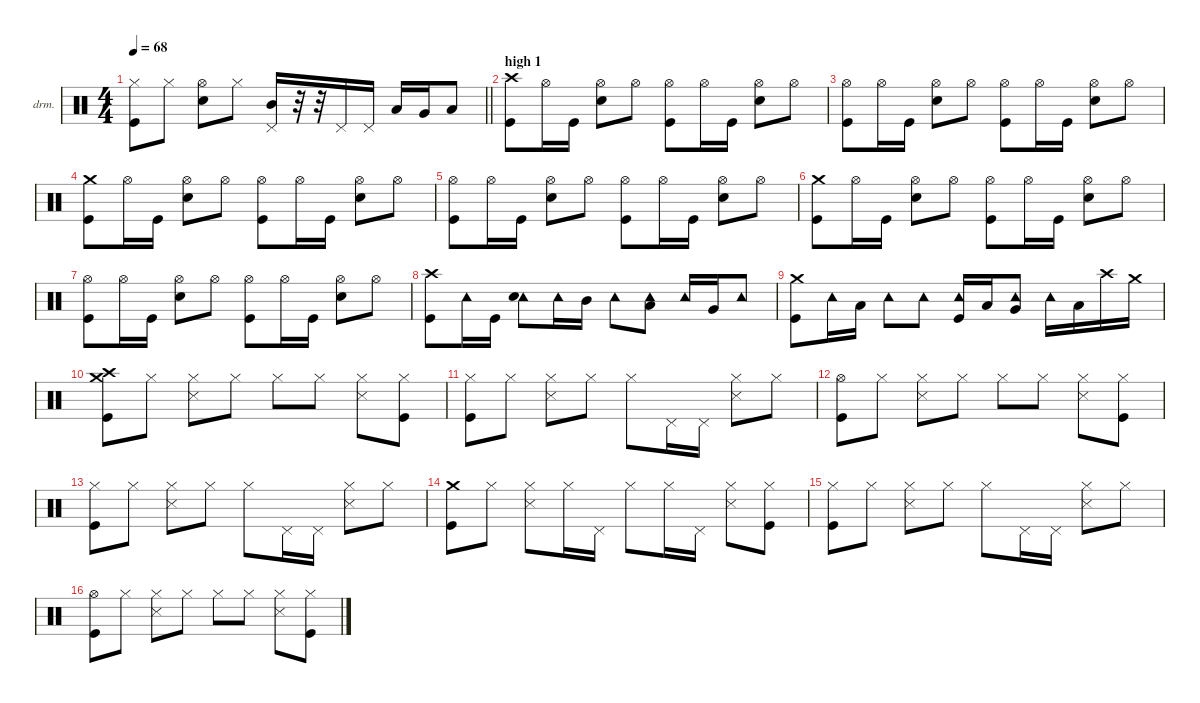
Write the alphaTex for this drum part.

\defaultSystemsLayout 4
\hideDynamics
\bracketExtendMode nobrackets
\firstSystemTrackNameOrientation horizontal
\otherSystemsTrackNameOrientation horizontal
\track ("Drums" "drm.") {instrument percussion}
\staff {score}
\articulation defaults
\ts (4 4)
\tempo 68
\clef neutral
\barLineRight lightlight
\ks c
("Kick (hit)" "Hi-Hat (closed)").8{dy f} "Hi-Hat (closed)".8 ("Snare (hit) 2" "Hi-Hat (open)").8 "Hi-Hat (closed)".8 ("Mid Tom (hit)" "Pedal Hi-Hat (hit)").16 r.32 r.32 "Pedal Hi-Hat (hit)".16 "Pedal Hi-Hat (hit)".16 "Low Tom (hit)".16 "Very Low Tom (hit)".16 "Low Floor Tom (hit)".8 |
\section ("" "high 1")
("Kick (hit)" "Crash high (hit)").8 "Hi-Hat (open)".16 "Kick (hit)".16 ("Hi-Hat (open)" "Snare (hit) 2").8 "Hi-Hat (open)".8 ("Hi-Hat (open)" "Kick (hit)").8 "Hi-Hat (open)".16 "Kick (hit)".16 ("Hi-Hat (open)" "Snare (hit) 2").8 "Hi-Hat (open)".8 |
("Hi-Hat (open)" "Kick (hit)").8 "Hi-Hat (open)".16 "Kick (hit)".16 ("Hi-Hat (open)" "Snare (hit) 2").8 "Hi-Hat (open)".8 ("Hi-Hat (open)" "Kick (hit)").8 "Hi-Hat (open)".16 "Kick (hit)".16 ("Hi-Hat (open)" "Snare (hit) 2").8 "Hi-Hat (open)".8 |
("Kick (hit)" "Crash medium (hit)").8 "Hi-Hat (open)".16 "Kick (hit)".16 ("Hi-Hat (open)" "Snare (hit) 2").8 "Hi-Hat (open)".8 ("Hi-Hat (open)" "Kick (hit)").8 "Hi-Hat (open)".16 "Kick (hit)".16 ("Hi-Hat (open)" "Snare (hit) 2").8 "Hi-Hat (open)".8 |
("Hi-Hat (open)" "Kick (hit)").8 "Hi-Hat (open)".16 "Kick (hit)".16 ("Hi-Hat (open)" "Snare (hit) 2").8 "Hi-Hat (open)".8 ("Hi-Hat (open)" "Kick (hit)").8 "Hi-Hat (open)".16 "Kick (hit)".16 ("Hi-Hat (open)" "Snare (hit) 2").8 "Hi-Hat (open)".8 |
("Kick (hit)" "Crash medium (hit)").8 "Hi-Hat (open)".16 "Kick (hit)".16 ("Hi-Hat (open)" "Snare (hit) 2").8 "Hi-Hat (open)".8 ("Hi-Hat (open)" "Kick (hit)").8 "Hi-Hat (open)".16 "Kick (hit)".16 ("Hi-Hat (open)" "Snare (hit) 2").8 "Hi-Hat (open)".8 |
("Hi-Hat (open)" "Kick (hit)").8 "Hi-Hat (open)".16 "Kick (hit)".16 ("Hi-Hat (open)" "Snare (hit) 2").8 "Hi-Hat (open)".8 ("Hi-Hat (open)" "Kick (hit)").8 "Hi-Hat (open)".16 "Kick (hit)".16 ("Hi-Hat (open)" "Snare (hit) 2").8 "Hi-Hat (open)".8 |
("Crash high (hit)" "Kick (hit)").8 "Tambourine (hit)".16 "Kick (hit)".16 ("Tambourine (hit)" "Snare (hit) 2").8 "Tambourine (hit)".16 "Mid Tom (hit)".16 "Tambourine (hit)".8 ("Tambourine (hit)" "Low Tom (hit)").8 "Tambourine (hit)".16 "Very Low Tom (hit)".16 "Tambourine (hit)".8 |
("Kick (hit)" "Crash medium (hit)").8 "Tambourine (hit)".16 "Low Tom (hit)".16 "Tambourine (hit)".8 "Tambourine (hit)".8 ("Tambourine (hit)" "Kick (hit)").16 "Low Tom (hit)".16 ("Tambourine (hit)" "Very Low Tom (hit)").8 "Tambourine (hit)".16 "Low Tom (hit)".16 "Crash high (hit)".16 "Crash medium (hit)".16 |
("Kick (hit)" "Crash medium (hit)" "Crash high (hit)").8 "Hi-Hat (closed)".8 ("Snare (side stick) 3" "Hi-Hat (closed)").8 "Hi-Hat (closed)".8 "Hi-Hat (closed)".8 "Hi-Hat (closed)".8 ("Snare (side stick) 3" "Hi-Hat (closed)").8 ("Kick (hit)" "Hi-Hat (closed)").8 |
("Kick (hit)" "Hi-Hat (closed)").8 "Hi-Hat (closed)".8 ("Snare (side stick) 3" "Hi-Hat (closed)").8 "Hi-Hat (closed)".8 "Hi-Hat (closed)".8 "Pedal Hi-Hat (hit)".16 "Pedal Hi-Hat (hit)".16 ("Snare (side stick) 3" "Hi-Hat (closed)").8 "Hi-Hat (closed)".8 |
("Kick (hit)" "Hi-Hat (open)").8 "Hi-Hat (closed)".8 ("Snare (side stick) 3" "Hi-Hat (closed)").8 "Hi-Hat (closed)".8 "Hi-Hat (closed)".8 "Hi-Hat (closed)".8 ("Snare (side stick) 3" "Hi-Hat (closed)").8 ("Kick (hit)" "Hi-Hat (closed)").8 |
("Kick (hit)" "Hi-Hat (closed)").8 "Hi-Hat (closed)".8 ("Snare (side stick) 3" "Hi-Hat (closed)").8 "Hi-Hat (closed)".8 "Hi-Hat (closed)".8 "Pedal Hi-Hat (hit)".16 "Pedal Hi-Hat (hit)".16 ("Snare (side stick) 3" "Hi-Hat (closed)").8 "Hi-Hat (closed)".8 |
("Kick (hit)" "Crash medium (hit)").8 "Hi-Hat (closed)".8 ("Snare (side stick) 3" "Hi-Hat (closed)").8 "Hi-Hat (closed)".16 "Pedal Hi-Hat (hit)".16 "Hi-Hat (closed)".8 "Hi-Hat (closed)".16 "Pedal Hi-Hat (hit)".16 ("Snare (side stick) 3" "Hi-Hat (closed)").8 ("Kick (hit)" "Hi-Hat (closed)").8 |
("Kick (hit)" "Hi-Hat (closed)").8 "Hi-Hat (closed)".8 ("Snare (side stick) 3" "Hi-Hat (closed)").8 "Hi-Hat (closed)".8 "Hi-Hat (closed)".8 "Pedal Hi-Hat (hit)".16 "Pedal Hi-Hat (hit)".16 ("Snare (side stick) 3" "Hi-Hat (closed)").8 "Hi-Hat (closed)".8 |
("Kick (hit)" "Hi-Hat (open)").8 "Hi-Hat (closed)".8 ("Snare (side stick) 3" "Hi-Hat (closed)").8 "Hi-Hat (closed)".8 "Hi-Hat (closed)".8 "Hi-Hat (closed)".8 ("Snare (side stick) 3" "Hi-Hat (closed)").8 ("Kick (hit)" "Hi-Hat (closed)").8
